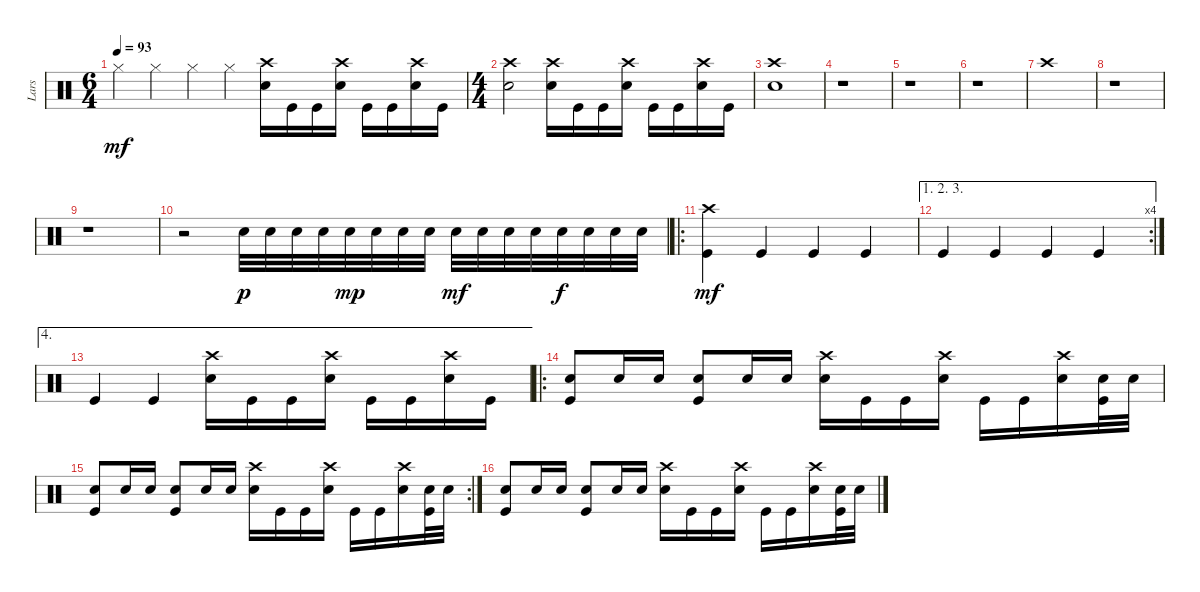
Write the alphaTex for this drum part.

\track ("Lars" "Lars") {instrument percussion}
\staff {score}
\articulation defaults
\ts (6 4)
\tempo 93
\clef neutral
\ks c "Hi-Hat (closed)".4{dy mf} "Hi-Hat (closed)".4 "Hi-Hat (closed)".4 "Hi-Hat (closed)".4
("Crash high (hit)" "Snare (hit) 2").16 "Kick (hit)".16 "Kick (hit)".16 ("Crash high (hit)" "Snare (hit) 2").16 "Kick (hit)".16 "Kick (hit)".16 ("Crash high (hit)" "Snare (hit) 2").16 "Kick (hit)".16 |
\ts (4 4)
("Crash high (hit)" "Snare (hit) 2").2 ("Crash high (hit)" "Snare (hit) 2").16 "Kick (hit)".16 "Kick (hit)".16 ("Crash high (hit)" "Snare (hit) 2").16 "Kick (hit)".16 "Kick (hit)".16 ("Crash high (hit)" "Snare (hit) 2").16 "Kick (hit)".16 |
("Crash high (hit)" "Snare (hit) 2").1 |
r.1 |
r.1 |
r.1 |
"Crash high (hit)".1 |
r.1 |
r.1 |
r.2 "Snare (hit) 2".32{dy p} "Snare (hit) 2".32 "Snare (hit) 2".32 "Snare (hit) 2".32 "Snare (hit) 2".32{dy mp} "Snare (hit) 2".32 "Snare (hit) 2".32 "Snare (hit) 2".32 "Snare (hit) 2".32{dy mf} "Snare (hit) 2".32 "Snare (hit) 2".32 "Snare (hit) 2".32 "Snare (hit) 2".32{dy f} "Snare (hit) 2".32 "Snare (hit) 2".32 "Snare (hit) 2".32 |
\ro
("Crash high (hit)" "Kick (hit)").4{dy mf} "Kick (hit)".4 "Kick (hit)".4 "Kick (hit)".4 |
\ae (1 2 3)
\rc 4 "Kick (hit)".4 "Kick (hit)".4 "Kick (hit)".4 "Kick (hit)".4
|
\ae 4 "Kick (hit)".4 "Kick (hit)".4
("Crash high (hit)" "Snare (hit) 2").16 "Kick (hit)".16 "Kick (hit)".16 ("Crash high (hit)" "Snare (hit) 2").16 "Kick (hit)".16 "Kick (hit)".16 ("Crash high (hit)" "Snare (hit) 2").16 "Kick (hit)".16 |
\ro
("Snare (hit) 2" "Kick (hit)").8 "Snare (hit) 2".16 "Snare (hit) 2".16 ("Snare (hit) 2" "Kick (hit)").8 "Snare (hit) 2".16 "Snare (hit) 2".16 ("Crash high (hit)" "Snare (hit) 2").16 "Kick (hit)".16 "Kick (hit)".16 ("Crash high (hit)" "Snare (hit) 2").16 "Kick (hit)".16 "Kick (hit)".16 ("Crash high (hit)" "Snare (hit) 2").16 ("Snare (hit) 2" "Kick (hit)").32 "Snare (hit) 2".32 |
\rc 2
("Snare (hit) 2" "Kick (hit)").8 "Snare (hit) 2".16 "Snare (hit) 2".16 ("Snare (hit) 2" "Kick (hit)").8 "Snare (hit) 2".16 "Snare (hit) 2".16 ("Crash high (hit)" "Snare (hit) 2").16 "Kick (hit)".16 "Kick (hit)".16 ("Crash high (hit)" "Snare (hit) 2").16 "Kick (hit)".16 "Kick (hit)".16 ("Crash high (hit)" "Snare (hit) 2").16 ("Snare (hit) 2" "Kick (hit)").32 "Snare (hit) 2".32 |
("Snare (hit) 2" "Kick (hit)").8 "Snare (hit) 2".16 "Snare (hit) 2".16 ("Snare (hit) 2" "Kick (hit)").8 "Snare (hit) 2".16 "Snare (hit) 2".16 ("Crash high (hit)" "Snare (hit) 2").16 "Kick (hit)".16 "Kick (hit)".16 ("Crash high (hit)" "Snare (hit) 2").16 "Kick (hit)".16 "Kick (hit)".16 ("Crash high (hit)" "Snare (hit) 2").16 ("Snare (hit) 2" "Kick (hit)").32 "Snare (hit) 2".32
